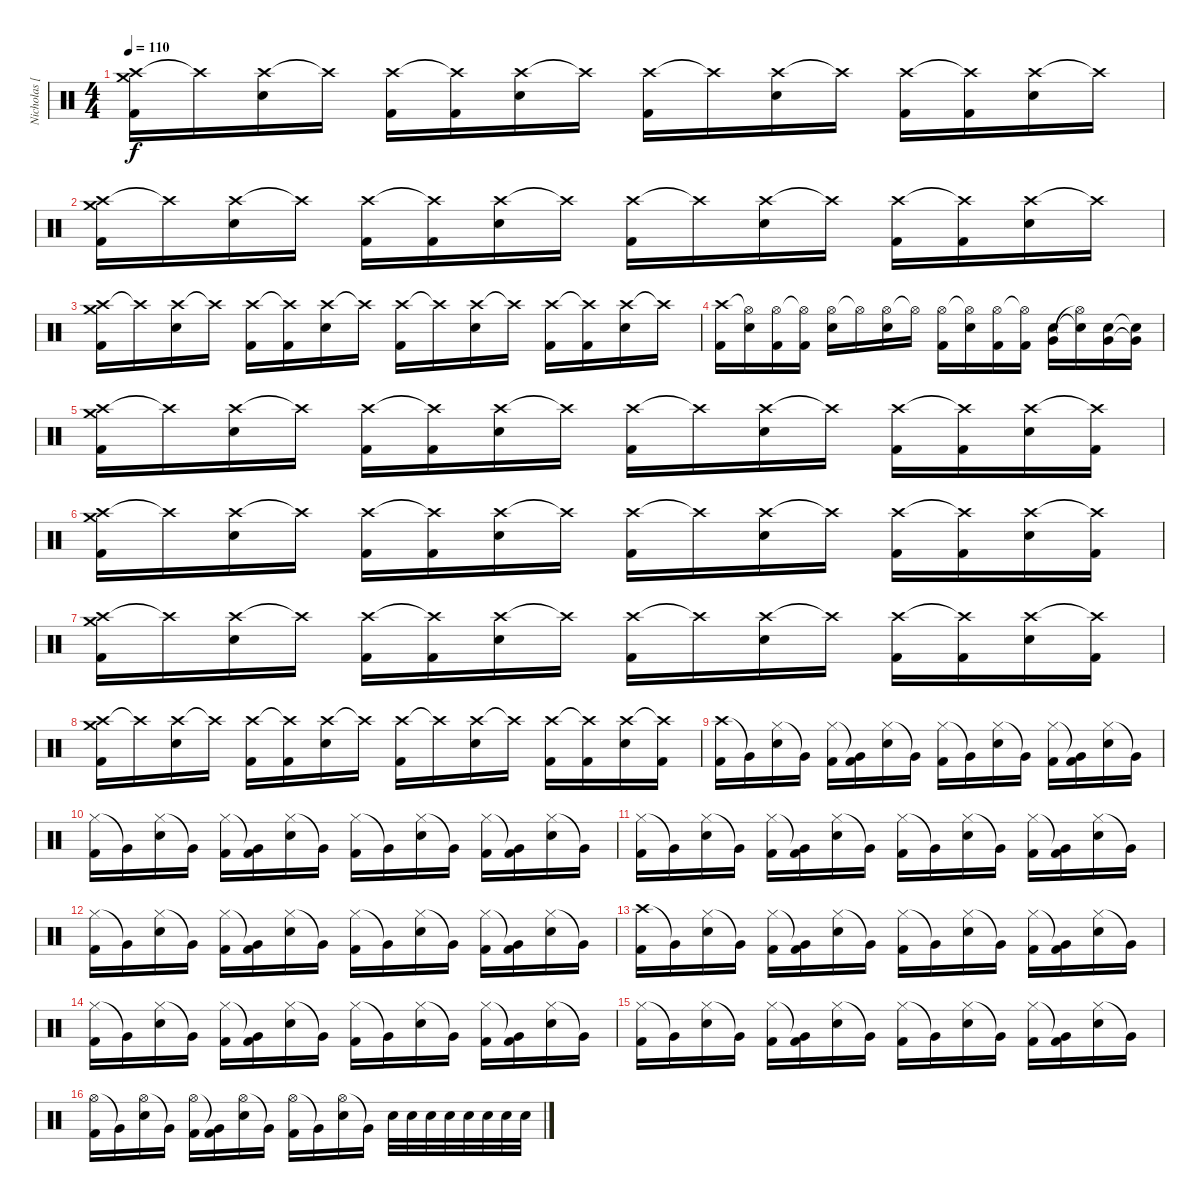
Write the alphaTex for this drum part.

\track ("Nicholas [Drums]" "Nicholas [") {instrument percussion}
\staff {score}
\articulation defaults
\ts (4 4)
\tempo 110
\clef neutral
\ks c
("Crash high (hit)" "Crash medium (hit)" "Kick (hit) 2").16{dy f} "Crash high (hit)"{t}.16 ("Crash high (hit)" "Snare (hit) 2").16 "Crash high (hit)"{t}.16 ("Crash high (hit)" "Kick (hit) 2").16 ("Crash high (hit)"{t} "Kick (hit) 2").16 ("Crash high (hit)" "Snare (hit) 2").16 "Crash high (hit)"{t}.16 ("Crash high (hit)" "Kick (hit) 2").16 "Crash high (hit)"{t}.16 ("Crash high (hit)" "Snare (hit) 2").16 "Crash high (hit)"{t}.16 ("Crash high (hit)" "Kick (hit) 2").16 ("Crash high (hit)"{t} "Kick (hit) 2").16 ("Crash high (hit)" "Snare (hit) 2").16 "Crash high (hit)"{t}.16 |
("Crash high (hit)" "Crash medium (hit)" "Kick (hit) 2").16 "Crash high (hit)"{t}.16 ("Crash high (hit)" "Snare (hit) 2").16 "Crash high (hit)"{t}.16 ("Crash high (hit)" "Kick (hit) 2").16 ("Crash high (hit)"{t} "Kick (hit) 2").16 ("Crash high (hit)" "Snare (hit) 2").16 "Crash high (hit)"{t}.16 ("Crash high (hit)" "Kick (hit) 2").16 "Crash high (hit)"{t}.16 ("Crash high (hit)" "Snare (hit) 2").16 "Crash high (hit)"{t}.16 ("Crash high (hit)" "Kick (hit) 2").16 ("Crash high (hit)"{t} "Kick (hit) 2").16 ("Crash high (hit)" "Snare (hit) 2").16 "Crash high (hit)"{t}.16 |
("Crash high (hit)" "Crash medium (hit)" "Kick (hit) 2").16 "Crash high (hit)"{t}.16 ("Crash high (hit)" "Snare (hit) 2").16 "Crash high (hit)"{t}.16 ("Crash high (hit)" "Kick (hit) 2").16 ("Crash high (hit)"{t} "Kick (hit) 2").16 ("Crash high (hit)" "Snare (hit) 2").16 "Crash high (hit)"{t}.16 ("Crash high (hit)" "Kick (hit) 2").16 "Crash high (hit)"{t}.16 ("Crash high (hit)" "Snare (hit) 2").16 "Crash high (hit)"{t}.16 ("Crash high (hit)" "Kick (hit) 2").16 ("Crash high (hit)"{t} "Kick (hit) 2").16 ("Crash high (hit)" "Snare (hit) 2").16 "Crash high (hit)"{t}.16 |
("Crash high (hit)" "Kick (hit) 2").16 ("Hi-Hat (open)"{t} "Snare (hit) 2").16 ("Hi-Hat (open)" "Kick (hit) 2").16 ("Hi-Hat (open)"{t} "Kick (hit) 2").16 ("Hi-Hat (open)" "Snare (hit) 2").16 "Hi-Hat (open)"{t}.16 ("Hi-Hat (open)" "Snare (hit) 2").16 "Hi-Hat (open)"{t}.16 ("Hi-Hat (open)" "Kick (hit) 2").16 ("Hi-Hat (open)"{t} "Snare (hit) 2").16 ("Hi-Hat (open)" "Kick (hit) 2").16 ("Hi-Hat (open)"{t} "Kick (hit) 2").16 ("Very Low Tom (hit)" "Snare (hit) 2").16 ("Hi-Hat (open)"{t} "Snare (hit)"{t}).16 ("Very Low Tom (hit)" "Snare (hit) 2").16 ("Very Low Tom (hit)"{t} "Snare (hit) 2"{t}).16 |
("Crash high (hit)" "Crash medium (hit)" "Kick (hit) 2").16 "Crash high (hit)"{t}.16 ("Crash high (hit)" "Snare (hit) 2").16 "Crash high (hit)"{t}.16 ("Crash high (hit)" "Kick (hit) 2").16 ("Crash high (hit)"{t} "Kick (hit) 2").16 ("Crash high (hit)" "Snare (hit) 2").16 "Crash high (hit)"{t}.16 ("Crash high (hit)" "Kick (hit) 2").16 "Crash high (hit)"{t}.16 ("Crash high (hit)" "Snare (hit) 2").16 "Crash high (hit)"{t}.16 ("Crash high (hit)" "Kick (hit) 2").16 ("Crash high (hit)"{t} "Kick (hit) 2").16 ("Crash high (hit)" "Snare (hit) 2").16 ("Crash high (hit)"{t} "Kick (hit) 2").16 |
("Crash high (hit)" "Crash medium (hit)" "Kick (hit) 2").16 "Crash high (hit)"{t}.16 ("Crash high (hit)" "Snare (hit) 2").16 "Crash high (hit)"{t}.16 ("Crash high (hit)" "Kick (hit) 2").16 ("Crash high (hit)"{t} "Kick (hit) 2").16 ("Crash high (hit)" "Snare (hit) 2").16 "Crash high (hit)"{t}.16 ("Crash high (hit)" "Kick (hit) 2").16 "Crash high (hit)"{t}.16 ("Crash high (hit)" "Snare (hit) 2").16 "Crash high (hit)"{t}.16 ("Crash high (hit)" "Kick (hit) 2").16 ("Crash high (hit)"{t} "Kick (hit) 2").16 ("Crash high (hit)" "Snare (hit) 2").16 ("Crash high (hit)"{t} "Kick (hit) 2").16 |
("Crash high (hit)" "Crash medium (hit)" "Kick (hit) 2").16 "Crash high (hit)"{t}.16 ("Crash high (hit)" "Snare (hit) 2").16 "Crash high (hit)"{t}.16 ("Crash high (hit)" "Kick (hit) 2").16 ("Crash high (hit)"{t} "Kick (hit) 2").16 ("Crash high (hit)" "Snare (hit) 2").16 "Crash high (hit)"{t}.16 ("Crash high (hit)" "Kick (hit) 2").16 "Crash high (hit)"{t}.16 ("Crash high (hit)" "Snare (hit) 2").16 "Crash high (hit)"{t}.16 ("Crash high (hit)" "Kick (hit) 2").16 ("Crash high (hit)"{t} "Kick (hit) 2").16 ("Crash high (hit)" "Snare (hit) 2").16 ("Crash high (hit)"{t} "Kick (hit) 2").16 |
("Crash high (hit)" "Crash medium (hit)" "Kick (hit) 2").16 "Crash high (hit)"{t}.16 ("Crash high (hit)" "Snare (hit) 2").16 "Crash high (hit)"{t}.16 ("Crash high (hit)" "Kick (hit) 2").16 ("Crash high (hit)"{t} "Kick (hit) 2").16 ("Crash high (hit)" "Snare (hit) 2").16 "Crash high (hit)"{t}.16 ("Crash high (hit)" "Kick (hit) 2").16 "Crash high (hit)"{t}.16 ("Crash high (hit)" "Snare (hit) 2").16 "Crash high (hit)"{t}.16 ("Crash high (hit)" "Kick (hit) 2").16 ("Crash high (hit)"{t} "Kick (hit) 2").16 ("Crash high (hit)" "Snare (hit) 2").16 ("Crash high (hit)"{t} "Kick (hit) 2").16 |
("Crash high (hit)" "Kick (hit) 2").16 "Very Low Tom (hit)"{t}.16 ("Hi-Hat (closed)" "Snare (hit) 2").16 "Very Low Tom (hit)"{t}.16 ("Hi-Hat (closed)" "Kick (hit) 2").16 ("Very Low Tom (hit)"{t} "Kick (hit) 2").16 ("Hi-Hat (closed)" "Snare (hit) 2").16 "Very Low Tom (hit)"{t}.16 ("Hi-Hat (closed)" "Kick (hit) 2").16 "Very Low Tom (hit)"{t}.16 ("Hi-Hat (closed)" "Snare (hit) 2").16 "Very Low Tom (hit)"{t}.16 ("Hi-Hat (closed)" "Kick (hit) 2").16 ("Very Low Tom (hit)"{t} "Kick (hit) 2").16 ("Hi-Hat (closed)" "Snare (hit) 2").16 "Very Low Tom (hit)"{t}.16 |
("Hi-Hat (closed)" "Kick (hit) 2").16 "Very Low Tom (hit)"{t}.16 ("Hi-Hat (closed)" "Snare (hit) 2").16 "Very Low Tom (hit)"{t}.16 ("Hi-Hat (closed)" "Kick (hit) 2").16 ("Very Low Tom (hit)"{t} "Kick (hit) 2").16 ("Hi-Hat (closed)" "Snare (hit) 2").16 "Very Low Tom (hit)"{t}.16 ("Hi-Hat (closed)" "Kick (hit) 2").16 "Very Low Tom (hit)"{t}.16 ("Hi-Hat (closed)" "Snare (hit) 2").16 "Very Low Tom (hit)"{t}.16 ("Hi-Hat (closed)" "Kick (hit) 2").16 ("Very Low Tom (hit)"{t} "Kick (hit) 2").16 ("Hi-Hat (closed)" "Snare (hit) 2").16 "Very Low Tom (hit)"{t}.16 |
("Hi-Hat (closed)" "Kick (hit) 2").16 "Very Low Tom (hit)"{t}.16 ("Hi-Hat (closed)" "Snare (hit) 2").16 "Very Low Tom (hit)"{t}.16 ("Hi-Hat (closed)" "Kick (hit) 2").16 ("Very Low Tom (hit)"{t} "Kick (hit) 2").16 ("Hi-Hat (closed)" "Snare (hit) 2").16 "Very Low Tom (hit)"{t}.16 ("Hi-Hat (closed)" "Kick (hit) 2").16 "Very Low Tom (hit)"{t}.16 ("Hi-Hat (closed)" "Snare (hit) 2").16 "Very Low Tom (hit)"{t}.16 ("Hi-Hat (closed)" "Kick (hit) 2").16 ("Very Low Tom (hit)"{t} "Kick (hit) 2").16 ("Hi-Hat (closed)" "Snare (hit) 2").16 "Very Low Tom (hit)"{t}.16 |
("Hi-Hat (closed)" "Kick (hit) 2").16 "Very Low Tom (hit)"{t}.16 ("Hi-Hat (closed)" "Snare (hit) 2").16 "Very Low Tom (hit)"{t}.16 ("Hi-Hat (closed)" "Kick (hit) 2").16 ("Very Low Tom (hit)"{t} "Kick (hit) 2").16 ("Hi-Hat (closed)" "Snare (hit) 2").16 "Very Low Tom (hit)"{t}.16 ("Hi-Hat (closed)" "Kick (hit) 2").16 "Very Low Tom (hit)"{t}.16 ("Hi-Hat (closed)" "Snare (hit) 2").16 "Very Low Tom (hit)"{t}.16 ("Hi-Hat (closed)" "Kick (hit) 2").16 ("Very Low Tom (hit)"{t} "Kick (hit) 2").16 ("Hi-Hat (closed)" "Snare (hit) 2").16 "Very Low Tom (hit)"{t}.16 |
("Crash high (hit)" "Kick (hit) 2").16 "Very Low Tom (hit)"{t}.16 ("Hi-Hat (closed)" "Snare (hit) 2").16 "Very Low Tom (hit)"{t}.16 ("Hi-Hat (closed)" "Kick (hit) 2").16 ("Very Low Tom (hit)"{t} "Kick (hit) 2").16 ("Hi-Hat (closed)" "Snare (hit) 2").16 "Very Low Tom (hit)"{t}.16 ("Hi-Hat (closed)" "Kick (hit) 2").16 "Very Low Tom (hit)"{t}.16 ("Hi-Hat (closed)" "Snare (hit) 2").16 "Very Low Tom (hit)"{t}.16 ("Hi-Hat (closed)" "Kick (hit) 2").16 ("Very Low Tom (hit)"{t} "Kick (hit) 2").16 ("Hi-Hat (closed)" "Snare (hit) 2").16 "Very Low Tom (hit)"{t}.16 |
("Hi-Hat (closed)" "Kick (hit) 2").16 "Very Low Tom (hit)"{t}.16 ("Hi-Hat (closed)" "Snare (hit) 2").16 "Very Low Tom (hit)"{t}.16 ("Hi-Hat (closed)" "Kick (hit) 2").16 ("Very Low Tom (hit)"{t} "Kick (hit) 2").16 ("Hi-Hat (closed)" "Snare (hit) 2").16 "Very Low Tom (hit)"{t}.16 ("Hi-Hat (closed)" "Kick (hit) 2").16 "Very Low Tom (hit)"{t}.16 ("Hi-Hat (closed)" "Snare (hit) 2").16 "Very Low Tom (hit)"{t}.16 ("Hi-Hat (closed)" "Kick (hit) 2").16 ("Very Low Tom (hit)"{t} "Kick (hit) 2").16 ("Hi-Hat (closed)" "Snare (hit) 2").16 "Very Low Tom (hit)"{t}.16 |
("Hi-Hat (closed)" "Kick (hit) 2").16 "Very Low Tom (hit)"{t}.16 ("Hi-Hat (closed)" "Snare (hit) 2").16 "Very Low Tom (hit)"{t}.16 ("Hi-Hat (closed)" "Kick (hit) 2").16 ("Very Low Tom (hit)"{t} "Kick (hit) 2").16 ("Hi-Hat (closed)" "Snare (hit) 2").16 "Very Low Tom (hit)"{t}.16 ("Hi-Hat (closed)" "Kick (hit) 2").16 "Very Low Tom (hit)"{t}.16 ("Hi-Hat (closed)" "Snare (hit) 2").16 "Very Low Tom (hit)"{t}.16 ("Hi-Hat (closed)" "Kick (hit) 2").16 ("Very Low Tom (hit)"{t} "Kick (hit) 2").16 ("Hi-Hat (closed)" "Snare (hit) 2").16 "Very Low Tom (hit)"{t}.16 |
("Hi-Hat (open)" "Kick (hit) 2").16 "Very Low Tom (hit)"{t}.16 ("Hi-Hat (open)" "Snare (hit) 2").16 "Very Low Tom (hit)"{t}.16 ("Hi-Hat (open)" "Kick (hit) 2").16 ("Very Low Tom (hit)"{t} "Kick (hit) 2").16 ("Hi-Hat (open)" "Snare (hit) 2").16 "Very Low Tom (hit)"{t}.16 ("Hi-Hat (open)" "Kick (hit) 2").16 "Very Low Tom (hit)"{t}.16 ("Hi-Hat (open)" "Snare (hit) 2").16 "Very Low Tom (hit)"{t}.16 "Snare (hit) 2".32 "Snare (hit) 2".32 "Snare (hit) 2".32 "Snare (hit) 2".32 "Snare (hit) 2".32 "Snare (hit) 2".32 "Snare (hit) 2".32 "Snare (hit) 2".32
